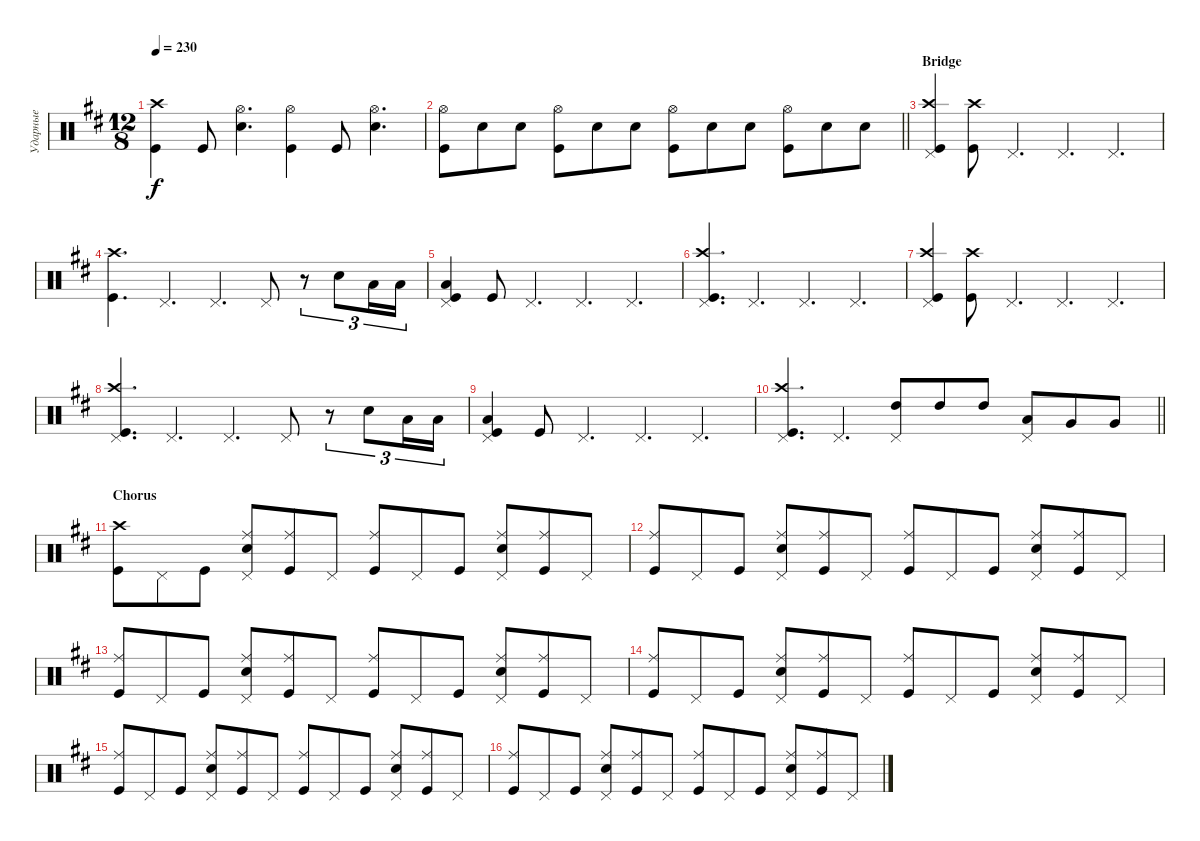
\track ("Ударные" "Ударные") {instrument percussion}
\staff {score}
\articulation defaults
\ts (12 8)
\tempo 230
\clef neutral
\ks bminor
("Kick (hit)" "Crash high (hit)").4{dy f} "Kick (hit)".8 ("Snare (hit) 2" "Hi-Hat (open)").4{d} ("Kick (hit)" "Hi-Hat (open)").4 "Kick (hit)".8 ("Snare (hit) 2" "Hi-Hat (open)").4{d} |
\barLineRight lightlight
("Kick (hit)" "Hi-Hat (open)").8 "Snare (hit) 2".8 "Snare (hit) 2".8 ("Kick (hit)" "Hi-Hat (open)").8 "Snare (hit) 2".8 "Snare (hit) 2".8 ("Kick (hit)" "Hi-Hat (open)").8 "Snare (hit) 2".8 "Snare (hit) 2".8 ("Kick (hit)" "Hi-Hat (open)").8 "Snare (hit) 2".8 "Snare (hit) 2".8 |
\section ("" "Bridge")
("Kick (hit)" "Crash high (hit)" "Pedal Hi-Hat (hit)").4 ("Crash high (hit)" "Kick (hit)").8 "Pedal Hi-Hat (hit)".4{d} "Pedal Hi-Hat (hit)".4{d} "Pedal Hi-Hat (hit)".4{d} |
("Kick (hit)" "Crash high (hit)").4{d} "Pedal Hi-Hat (hit)".4{d} "Pedal Hi-Hat (hit)".4{d} "Pedal Hi-Hat (hit)".8 r.8{tu (3 2)} "Snare (hit) 2".8{tu (3 2)} "Low Tom (hit)".16{tu (3 2)} "Low Tom (hit)".16{tu (3 2)} |
("Kick (hit)" "Low Tom (hit)" "Pedal Hi-Hat (hit)").4 "Kick (hit)".8 "Pedal Hi-Hat (hit)".4{d} "Pedal Hi-Hat (hit)".4{d} "Pedal Hi-Hat (hit)".4{d} |
("Kick (hit)" "Crash high (hit)" "Pedal Hi-Hat (hit)").4{d} "Pedal Hi-Hat (hit)".4{d} "Pedal Hi-Hat (hit)".4{d} "Pedal Hi-Hat (hit)".4{d} |
("Kick (hit)" "Crash high (hit)" "Pedal Hi-Hat (hit)").4 ("Crash high (hit)" "Kick (hit)").8 "Pedal Hi-Hat (hit)".4{d} "Pedal Hi-Hat (hit)".4{d} "Pedal Hi-Hat (hit)".4{d} |
("Kick (hit)" "Crash high (hit)" "Pedal Hi-Hat (hit)").4{d} "Pedal Hi-Hat (hit)".4{d} "Pedal Hi-Hat (hit)".4{d} "Pedal Hi-Hat (hit)".8 r.8{tu (3 2)} "Snare (hit) 2".8{tu (3 2)} "Low Tom (hit)".16{tu (3 2)} "Low Tom (hit)".16{tu (3 2)} |
("Kick (hit)" "Pedal Hi-Hat (hit)" "Low Tom (hit)").4 "Kick (hit)".8 "Pedal Hi-Hat (hit)".4{d} "Pedal Hi-Hat (hit)".4{d} "Pedal Hi-Hat (hit)".4{d} |
\barLineRight lightlight
("Kick (hit)" "Crash high (hit)" "Pedal Hi-Hat (hit)").4{d} "Pedal Hi-Hat (hit)".4{d} ("High Tom (hit)" "Pedal Hi-Hat (hit)").8 "High Tom (hit)".8 "High Tom (hit)".8 ("Low Tom (hit)" "Pedal Hi-Hat (hit)").8 "Very Low Tom (hit)".8 "Very Low Tom (hit)".8 |
\section ("" "Chorus")
("Kick (hit)" "Crash high (hit)").8 "Pedal Hi-Hat (hit)".8 "Kick (hit)".8 ("Snare (hit) 2" "Ride (middle)" "Pedal Hi-Hat (hit)").8 ("Ride (middle)" "Kick (hit)").8 "Pedal Hi-Hat (hit)".8 ("Kick (hit)" "Ride (middle)").8 "Pedal Hi-Hat (hit)".8 "Kick (hit)".8 ("Snare (hit) 2" "Ride (middle)" "Pedal Hi-Hat (hit)").8 ("Kick (hit)" "Ride (middle)").8 "Pedal Hi-Hat (hit)".8 |
("Kick (hit)" "Ride (middle)").8 "Pedal Hi-Hat (hit)".8 "Kick (hit)".8 ("Snare (hit) 2" "Ride (middle)" "Pedal Hi-Hat (hit)").8 ("Kick (hit)" "Ride (middle)").8 "Pedal Hi-Hat (hit)".8 ("Kick (hit)" "Ride (middle)").8 "Pedal Hi-Hat (hit)".8 "Kick (hit)".8 ("Snare (hit) 2" "Ride (middle)" "Pedal Hi-Hat (hit)").8 ("Kick (hit)" "Ride (middle)").8 "Pedal Hi-Hat (hit)".8 |
("Kick (hit)" "Ride (middle)").8 "Pedal Hi-Hat (hit)".8 "Kick (hit)".8 ("Snare (hit) 2" "Ride (middle)" "Pedal Hi-Hat (hit)").8 ("Kick (hit)" "Ride (middle)").8 "Pedal Hi-Hat (hit)".8 ("Kick (hit)" "Ride (middle)").8 "Pedal Hi-Hat (hit)".8 "Kick (hit)".8 ("Snare (hit) 2" "Ride (middle)" "Pedal Hi-Hat (hit)").8 ("Kick (hit)" "Ride (middle)").8 "Pedal Hi-Hat (hit)".8 |
("Kick (hit)" "Ride (middle)").8 "Pedal Hi-Hat (hit)".8 "Kick (hit)".8 ("Snare (hit) 2" "Ride (middle)" "Pedal Hi-Hat (hit)").8 ("Kick (hit)" "Ride (middle)").8 "Pedal Hi-Hat (hit)".8 ("Kick (hit)" "Ride (middle)").8 "Pedal Hi-Hat (hit)".8 "Kick (hit)".8 ("Snare (hit) 2" "Ride (middle)" "Pedal Hi-Hat (hit)").8 ("Kick (hit)" "Ride (middle)").8 "Pedal Hi-Hat (hit)".8 |
("Kick (hit)" "Ride (middle)").8 "Pedal Hi-Hat (hit)".8 "Kick (hit)".8 ("Snare (hit) 2" "Ride (middle)" "Pedal Hi-Hat (hit)").8 ("Kick (hit)" "Ride (middle)").8 "Pedal Hi-Hat (hit)".8 ("Kick (hit)" "Ride (middle)").8 "Pedal Hi-Hat (hit)".8 "Kick (hit)".8 ("Snare (hit) 2" "Ride (middle)" "Pedal Hi-Hat (hit)").8 ("Kick (hit)" "Ride (middle)").8 "Pedal Hi-Hat (hit)".8 |
("Kick (hit)" "Ride (middle)").8 "Pedal Hi-Hat (hit)".8 "Kick (hit)".8 ("Snare (hit) 2" "Ride (middle)" "Pedal Hi-Hat (hit)").8 ("Kick (hit)" "Ride (middle)").8 "Pedal Hi-Hat (hit)".8 ("Kick (hit)" "Ride (middle)").8 "Pedal Hi-Hat (hit)".8 "Kick (hit)".8 ("Snare (hit) 2" "Ride (middle)" "Pedal Hi-Hat (hit)").8 ("Kick (hit)" "Ride (middle)").8 "Pedal Hi-Hat (hit)".8
